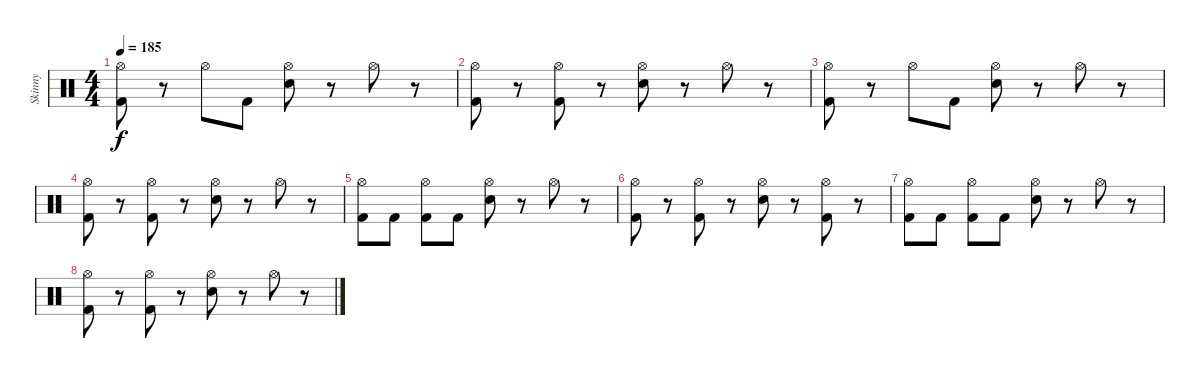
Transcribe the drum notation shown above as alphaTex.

\track ("Skinny" "Skinny") {instrument percussion}
\staff {score}
\articulation defaults
\ts (4 4)
\tempo 185
\clef neutral
\ks c
("Hi-Hat (open)" "Kick (hit) 2").8{dy f} r.8 "Hi-Hat (open)".8 "Kick (hit) 2".8 ("Hi-Hat (open)" "Snare (hit) 2").8 r.8 "Hi-Hat (open)".8 r.8 |
("Hi-Hat (open)" "Kick (hit) 2").8 r.8 ("Hi-Hat (open)" "Kick (hit) 2").8 r.8 ("Hi-Hat (open)" "Snare (hit) 2").8 r.8 "Hi-Hat (open)".8 r.8 |
("Hi-Hat (open)" "Kick (hit) 2").8 r.8 "Hi-Hat (open)".8 "Kick (hit) 2".8 ("Hi-Hat (open)" "Snare (hit) 2").8 r.8 "Hi-Hat (open)".8 r.8 |
("Hi-Hat (open)" "Kick (hit) 2").8 r.8 ("Hi-Hat (open)" "Kick (hit) 2").8 r.8 ("Hi-Hat (open)" "Snare (hit) 2").8 r.8 "Hi-Hat (open)".8 r.8 |
("Hi-Hat (open)" "Kick (hit) 2").8 "Kick (hit) 2".8 ("Hi-Hat (open)" "Kick (hit) 2").8 "Kick (hit) 2".8 ("Hi-Hat (open)" "Snare (hit) 2").8 r.8 "Hi-Hat (open)".8 r.8 |
("Hi-Hat (open)" "Kick (hit) 2").8 r.8 ("Hi-Hat (open)" "Kick (hit) 2").8 r.8 ("Hi-Hat (open)" "Snare (hit) 2").8 r.8 ("Hi-Hat (open)" "Kick (hit) 2").8 r.8 |
("Hi-Hat (open)" "Kick (hit) 2").8 "Kick (hit) 2".8 ("Hi-Hat (open)" "Kick (hit) 2").8 "Kick (hit) 2".8 ("Hi-Hat (open)" "Snare (hit) 2").8 r.8 "Hi-Hat (open)".8 r.8 |
("Hi-Hat (open)" "Kick (hit) 2").8 r.8 ("Hi-Hat (open)" "Kick (hit) 2").8 r.8 ("Hi-Hat (open)" "Snare (hit) 2").8 r.8 "Hi-Hat (open)".8 r.8
